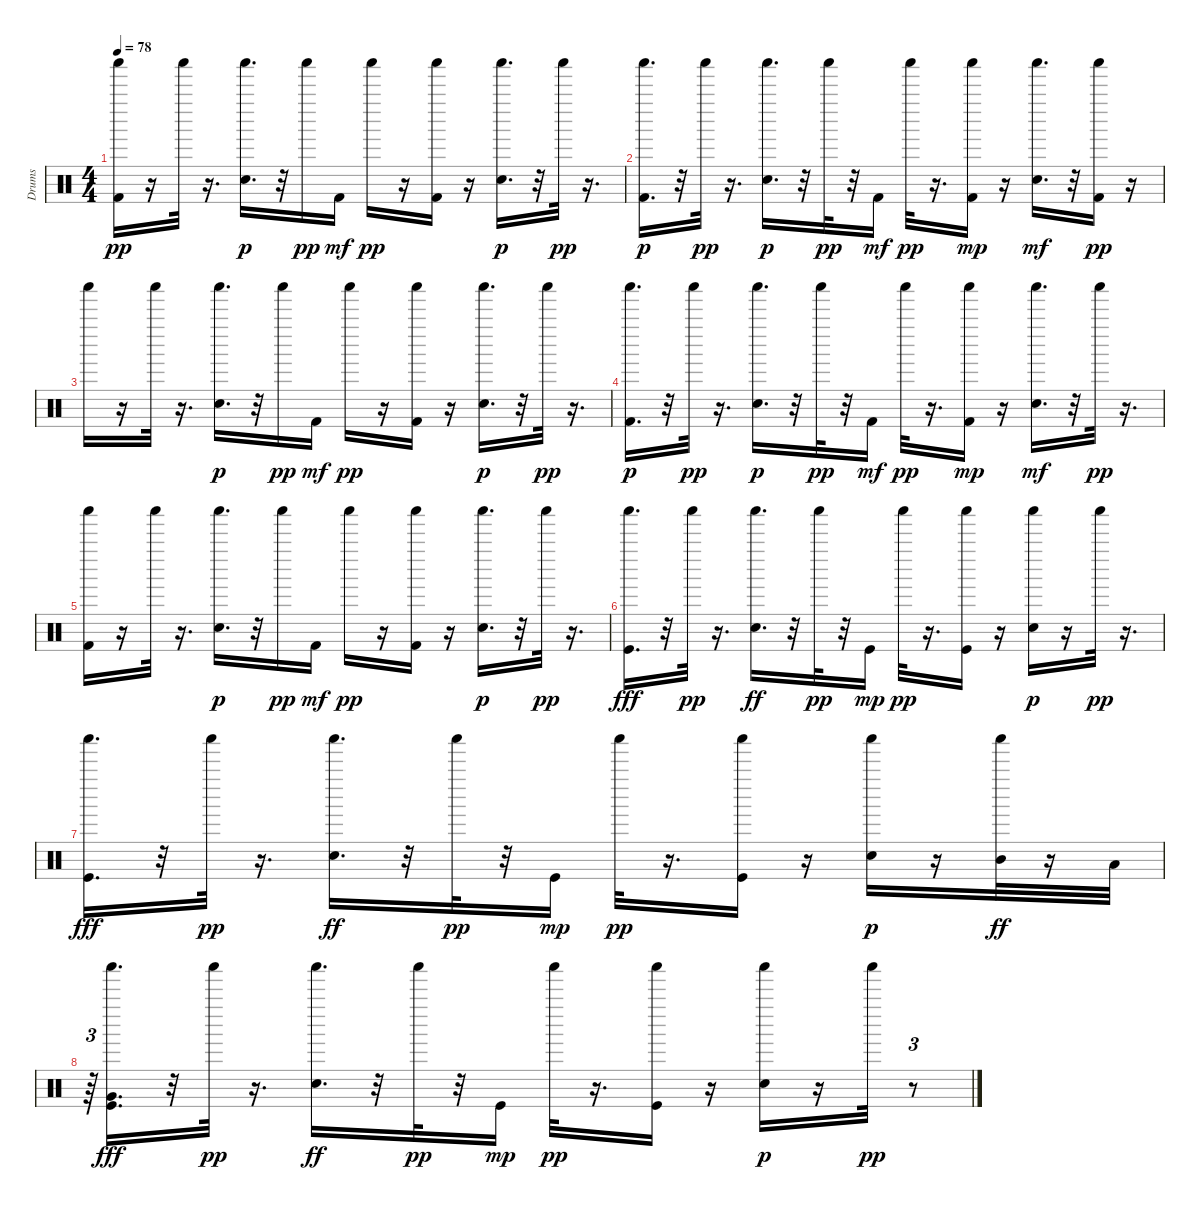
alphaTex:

\track ("Drums" "Drums") {instrument percussion}
\staff {score}
\articulation defaults
\ts (4 4)
\tempo 78
\clef neutral
\ks c
("Kick (hit) 2" "Shaker (hit)").16{dy pp} r.16 "Shaker (hit)".32 r.16{d} ("Snare (hit) 2" "Shaker (hit)").16{d dy p} r.32 "Shaker (hit)".16{dy pp} "Kick (hit) 2".16{dy mf} "Shaker (hit)".16{dy pp} r.16 ("Kick (hit) 2" "Shaker (hit)").16 r.16 ("Snare (hit) 2" "Shaker (hit)").16{d dy p} r.32 "Shaker (hit)".32{dy pp} r.16{d} |
("Kick (hit) 2" "Shaker (hit)").16{d dy p} r.32 "Shaker (hit)".32{dy pp} r.16{d} ("Snare (hit) 2" "Shaker (hit)").16{d dy p} r.32 "Shaker (hit)".32{dy pp} r.32 "Kick (hit) 2".16{dy mf} "Shaker (hit)".32{dy pp} r.16{d} ("Shaker (hit)" "Kick (hit) 2").16{dy mp} r.16 ("Shaker (hit)" "Snare (hit) 2").16{d dy mf} r.32 ("Kick (hit) 2" "Shaker (hit)").16{dy pp} r.16 |
"Shaker (hit)".16 r.16 "Shaker (hit)".32 r.16{d} ("Snare (hit) 2" "Shaker (hit)").16{d dy p} r.32 "Shaker (hit)".16{dy pp} "Kick (hit) 2".16{dy mf} "Shaker (hit)".16{dy pp} r.16 ("Kick (hit) 2" "Shaker (hit)").16 r.16 ("Snare (hit) 2" "Shaker (hit)").16{d dy p} r.32 "Shaker (hit)".32{dy pp} r.16{d} |
("Kick (hit) 2" "Shaker (hit)").16{d dy p} r.32 "Shaker (hit)".32{dy pp} r.16{d} ("Snare (hit) 2" "Shaker (hit)").16{d dy p} r.32 "Shaker (hit)".32{dy pp} r.32 "Kick (hit) 2".16{dy mf} "Shaker (hit)".32{dy pp} r.16{d} ("Shaker (hit)" "Kick (hit) 2").16{dy mp} r.16 ("Shaker (hit)" "Snare (hit) 2").16{d dy mf} r.32 "Shaker (hit)".32{dy pp} r.16{d} |
("Kick (hit) 2" "Shaker (hit)").16 r.16 "Shaker (hit)".32 r.16{d} ("Snare (hit) 2" "Shaker (hit)").16{d dy p} r.32 "Shaker (hit)".16{dy pp} "Kick (hit) 2".16{dy mf} "Shaker (hit)".16{dy pp} r.16 ("Kick (hit) 2" "Shaker (hit)").16 r.16 ("Snare (hit) 2" "Shaker (hit)").16{d dy p} r.32 "Shaker (hit)".32{dy pp} r.16{d} |
("Shaker (hit)" "Kick (hit)").16{d dy fff} r.32 "Shaker (hit)".32{dy pp} r.16{d} ("Shaker (hit)" "Electric Snare (hit)").16{d dy ff} r.32 "Shaker (hit)".32{dy pp} r.32 "Kick (hit)".16{dy mp} "Shaker (hit)".32{dy pp} r.16{d} ("Kick (hit)" "Shaker (hit)").16 r.16 ("Electric Snare (hit)" "Shaker (hit)").16{dy p} r.16 "Shaker (hit)".32{dy pp} r.16{d} |
("Shaker (hit)" "Kick (hit)").16{d dy fff} r.32 "Shaker (hit)".32{dy pp} r.16{d} ("Shaker (hit)" "Electric Snare (hit)").16{d dy ff} r.32 "Shaker (hit)".32{dy pp} r.32 "Kick (hit)".16{dy mp} "Shaker (hit)".32{dy pp} r.16{d} ("Kick (hit)" "Shaker (hit)").16 r.16 ("Electric Snare (hit)" "Shaker (hit)").16{dy p} r.16 ("Shaker (hit)" "Mid Tom (hit)").32{dy ff} r.16 "Low Tom (hit)".32 |
r.64{tu (3 2)} ("Very Low Tom (hit)" "Shaker (hit)" "Kick (hit)").16{d dy fff} r.32 "Shaker (hit)".32{dy pp} r.16{d} ("Shaker (hit)" "Electric Snare (hit)").16{d dy ff} r.32 "Shaker (hit)".32{dy pp} r.32 "Kick (hit)".16{dy mp} "Shaker (hit)".32{dy pp} r.16{d} ("Kick (hit)" "Shaker (hit)").16 r.16 ("Electric Snare (hit)" "Shaker (hit)").16{dy p} r.16 "Shaker (hit)".32{dy pp} r.8{tu (3 2)}
